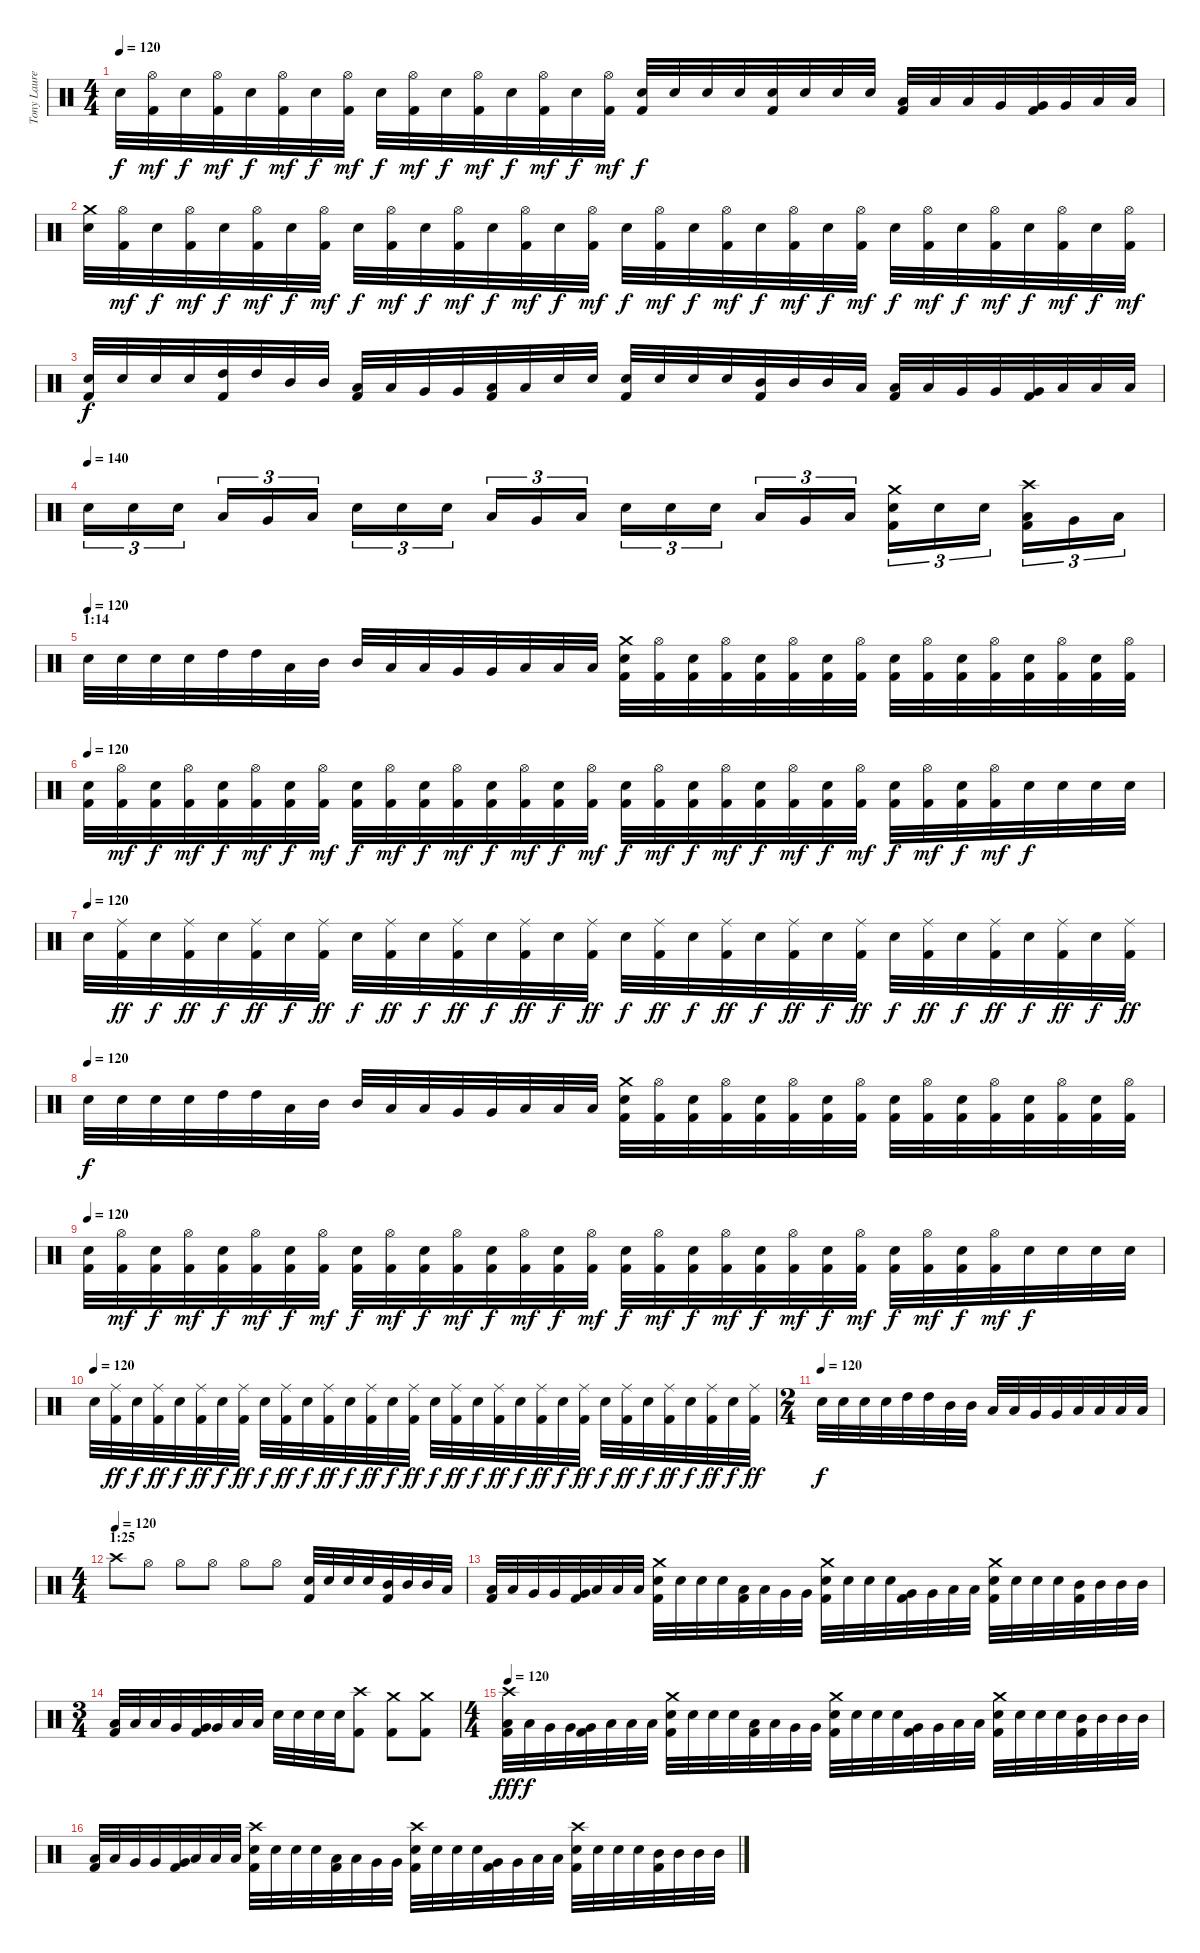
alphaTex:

\track ("Tony Laureano" "Tony Laure") {instrument percussion}
\staff {score}
\articulation defaults
\ts (4 4)
\tempo 120
\clef neutral
\ks c "Electric Snare (hit)".32{dy f}
("Hi-Hat (open)" "Kick (hit) 2").32{dy mf} "Electric Snare (hit)".32{dy f} ("Hi-Hat (open)" "Kick (hit) 2").32{dy mf} "Electric Snare (hit)".32{dy f} ("Hi-Hat (open)" "Kick (hit) 2").32{dy mf} "Electric Snare (hit)".32{dy f} ("Hi-Hat (open)" "Kick (hit) 2").32{dy mf} "Electric Snare (hit)".32{dy f} ("Hi-Hat (open)" "Kick (hit) 2").32{dy mf} "Electric Snare (hit)".32{dy f} ("Hi-Hat (open)" "Kick (hit) 2").32{dy mf} "Electric Snare (hit)".32{dy f} ("Hi-Hat (open)" "Kick (hit) 2").32{dy mf} "Electric Snare (hit)".32{dy f} ("Hi-Hat (open)" "Kick (hit) 2").32{dy mf} ("Electric Snare (hit)" "Kick (hit) 2").32{dy f} "Electric Snare (hit)".32 "Electric Snare (hit)".32 "Electric Snare (hit)".32 ("Electric Snare (hit)" "Kick (hit) 2").32 "Electric Snare (hit)".32 "Electric Snare (hit)".32 "Electric Snare (hit)".32 ("Low Tom (hit)" "Kick (hit) 2").32 "Low Tom (hit)".32 "Low Tom (hit)".32 "Very Low Tom (hit)".32 ("Very Low Tom (hit)" "Kick (hit) 2").32 "Very Low Tom (hit)".32 "Low Floor Tom (hit)".32 "Low Floor Tom (hit)".32 |
("Crash medium (hit)" "Electric Snare (hit)").32 ("Hi-Hat (open)" "Kick (hit) 2").32{dy mf} "Electric Snare (hit)".32{dy f} ("Hi-Hat (open)" "Kick (hit) 2").32{dy mf} "Electric Snare (hit)".32{dy f} ("Hi-Hat (open)" "Kick (hit) 2").32{dy mf} "Electric Snare (hit)".32{dy f} ("Hi-Hat (open)" "Kick (hit) 2").32{dy mf} "Electric Snare (hit)".32{dy f} ("Hi-Hat (open)" "Kick (hit) 2").32{dy mf} "Electric Snare (hit)".32{dy f} ("Hi-Hat (open)" "Kick (hit) 2").32{dy mf} "Electric Snare (hit)".32{dy f} ("Hi-Hat (open)" "Kick (hit) 2").32{dy mf} "Electric Snare (hit)".32{dy f} ("Hi-Hat (open)" "Kick (hit) 2").32{dy mf} "Electric Snare (hit)".32{dy f} ("Hi-Hat (open)" "Kick (hit) 2").32{dy mf} "Electric Snare (hit)".32{dy f} ("Hi-Hat (open)" "Kick (hit) 2").32{dy mf} "Electric Snare (hit)".32{dy f} ("Hi-Hat (open)" "Kick (hit) 2").32{dy mf} "Electric Snare (hit)".32{dy f} ("Hi-Hat (open)" "Kick (hit) 2").32{dy mf} "Electric Snare (hit)".32{dy f} ("Hi-Hat (open)" "Kick (hit) 2").32{dy mf} "Electric Snare (hit)".32{dy f} ("Hi-Hat (open)" "Kick (hit) 2").32{dy mf} "Electric Snare (hit)".32{dy f} ("Hi-Hat (open)" "Kick (hit) 2").32{dy mf} "Electric Snare (hit)".32{dy f} ("Hi-Hat (open)" "Kick (hit) 2").32{dy mf} |
("Electric Snare (hit)" "Kick (hit) 2").32{dy f} "Electric Snare (hit)".32 "Electric Snare (hit)".32 "Electric Snare (hit)".32 ("High Tom (hit)" "Kick (hit) 2").32 "High Tom (hit)".32 "Mid Tom (hit)".32 "Mid Tom (hit)".32 ("Low Tom (hit)" "Kick (hit) 2").32 "Low Tom (hit)".32 "Very Low Tom (hit)".32 "Very Low Tom (hit)".32 ("Low Floor Tom (hit)" "Kick (hit) 2").32 "Low Floor Tom (hit)".32 "Electric Snare (hit)".32 "Electric Snare (hit)".32 ("Electric Snare (hit)" "Kick (hit) 2").32 "Electric Snare (hit)".32 "Electric Snare (hit)".32 "Electric Snare (hit)".32 ("Mid Tom (hit)" "Kick (hit) 2").32 "Mid Tom (hit)".32 "Mid Tom (hit)".32 "Low Tom (hit)".32 ("Low Tom (hit)" "Kick (hit) 2").32 "Low Tom (hit)".32 "Very Low Tom (hit)".32 "Very Low Tom (hit)".32 ("Very Low Tom (hit)" "Kick (hit) 2").32 "Low Floor Tom (hit)".32 "Low Floor Tom (hit)".32 "Low Floor Tom (hit)".32 |
\tempo (140)
"Electric Snare (hit)".16{tu (3 2)} "Electric Snare (hit)".16{tu (3 2)} "Electric Snare (hit)".16{tu (3 2)} "Low Tom (hit)".16{tu (3 2)} "Very Low Tom (hit)".16{tu (3 2)} "Low Floor Tom (hit)".16{tu (3 2)} "Electric Snare (hit)".16{tu (3 2)} "Electric Snare (hit)".16{tu (3 2)} "Electric Snare (hit)".16{tu (3 2)} "Low Tom (hit)".16{tu (3 2)} "Very Low Tom (hit)".16{tu (3 2)} "Low Floor Tom (hit)".16{tu (3 2)} "Electric Snare (hit)".16{tu (3 2)} "Electric Snare (hit)".16{tu (3 2)} "Electric Snare (hit)".16{tu (3 2)} "Low Tom (hit)".16{tu (3 2)} "Very Low Tom (hit)".16{tu (3 2)} "Low Floor Tom (hit)".16{tu (3 2)} ("Crash medium (hit)" "Electric Snare (hit)" "Kick (hit) 2").16{tu (3 2)} "Electric Snare (hit)".16{tu (3 2)} "Electric Snare (hit)".16{tu (3 2)} ("Crash high (hit)" "Low Tom (hit)" "Kick (hit) 2").16{tu (3 2)} "Very Low Tom (hit)".16{tu (3 2)} "Low Floor Tom (hit)".16{tu (3 2)} |
\section ("" "1:14")
\tempo (120)
"Electric Snare (hit)".32 "Electric Snare (hit)".32 "Electric Snare (hit)".32 "Electric Snare (hit)".32 "High Tom (hit)".32 "High Tom (hit)".32 "Low Tom (hit)".32 "Mid Tom (hit)".32 "Mid Tom (hit)".32 "Low Tom (hit)".32 "Low Tom (hit)".32 "Very Low Tom (hit)".32 "Very Low Tom (hit)".32 "Low Floor Tom (hit)".32 "Low Floor Tom (hit)".32 "Low Floor Tom (hit)".32 ("Crash medium (hit)" "Electric Snare (hit)" "Kick (hit) 2").32 ("Hi-Hat (open)" "Kick (hit) 2").32 ("Electric Snare (hit)" "Kick (hit) 2").32 ("Hi-Hat (open)" "Kick (hit) 2").32 ("Electric Snare (hit)" "Kick (hit) 2").32 ("Hi-Hat (open)" "Kick (hit) 2").32 ("Electric Snare (hit)" "Kick (hit) 2").32 ("Hi-Hat (open)" "Kick (hit) 2").32 ("Electric Snare (hit)" "Kick (hit) 2").32 ("Hi-Hat (open)" "Kick (hit) 2").32 ("Electric Snare (hit)" "Kick (hit) 2").32 ("Hi-Hat (open)" "Kick (hit) 2").32 ("Electric Snare (hit)" "Kick (hit) 2").32 ("Hi-Hat (open)" "Kick (hit) 2").32 ("Electric Snare (hit)" "Kick (hit) 2").32 ("Hi-Hat (open)" "Kick (hit) 2").32 |
\tempo 120
("Electric Snare (hit)" "Kick (hit) 2").32 ("Hi-Hat (open)" "Kick (hit) 2").32{dy mf} ("Electric Snare (hit)" "Kick (hit) 2").32{dy f} ("Hi-Hat (open)" "Kick (hit) 2").32{dy mf} ("Electric Snare (hit)" "Kick (hit) 2").32{dy f} ("Hi-Hat (open)" "Kick (hit) 2").32{dy mf} ("Electric Snare (hit)" "Kick (hit) 2").32{dy f} ("Hi-Hat (open)" "Kick (hit) 2").32{dy mf} ("Electric Snare (hit)" "Kick (hit) 2").32{dy f} ("Hi-Hat (open)" "Kick (hit) 2").32{dy mf} ("Electric Snare (hit)" "Kick (hit) 2").32{dy f} ("Hi-Hat (open)" "Kick (hit) 2").32{dy mf} ("Electric Snare (hit)" "Kick (hit) 2").32{dy f} ("Hi-Hat (open)" "Kick (hit) 2").32{dy mf} ("Electric Snare (hit)" "Kick (hit) 2").32{dy f} ("Hi-Hat (open)" "Kick (hit) 2").32{dy mf} ("Electric Snare (hit)" "Kick (hit) 2").32{dy f} ("Hi-Hat (open)" "Kick (hit) 2").32{dy mf} ("Electric Snare (hit)" "Kick (hit) 2").32{dy f} ("Hi-Hat (open)" "Kick (hit) 2").32{dy mf} ("Electric Snare (hit)" "Kick (hit) 2").32{dy f} ("Hi-Hat (open)" "Kick (hit) 2").32{dy mf} ("Electric Snare (hit)" "Kick (hit) 2").32{dy f} ("Hi-Hat (open)" "Kick (hit) 2").32{dy mf} ("Electric Snare (hit)" "Kick (hit) 2").32{dy f} ("Hi-Hat (open)" "Kick (hit) 2").32{dy mf} ("Electric Snare (hit)" "Kick (hit) 2").32{dy f} ("Hi-Hat (open)" "Kick (hit) 2").32{dy mf} "Electric Snare (hit)".32{dy f} "Electric Snare (hit)".32 "Electric Snare (hit)".32 "Electric Snare (hit)".32 |
\tempo (120)
"Electric Snare (hit)".32 ("Ride (middle)" "Kick (hit) 2").32{dy ff} "Electric Snare (hit)".32{dy f} ("Ride (middle)" "Kick (hit) 2").32{dy ff} "Electric Snare (hit)".32{dy f} ("Ride (middle)" "Kick (hit) 2").32{dy ff} "Electric Snare (hit)".32{dy f} ("Ride (middle)" "Kick (hit) 2").32{dy ff} "Electric Snare (hit)".32{dy f} ("Ride (middle)" "Kick (hit) 2").32{dy ff} "Electric Snare (hit)".32{dy f} ("Ride (middle)" "Kick (hit) 2").32{dy ff} "Electric Snare (hit)".32{dy f} ("Ride (middle)" "Kick (hit) 2").32{dy ff} "Electric Snare (hit)".32{dy f} ("Ride (middle)" "Kick (hit) 2").32{dy ff} "Electric Snare (hit)".32{dy f} ("Ride (middle)" "Kick (hit) 2").32{dy ff} "Electric Snare (hit)".32{dy f} ("Ride (middle)" "Kick (hit) 2").32{dy ff} "Electric Snare (hit)".32{dy f} ("Ride (middle)" "Kick (hit) 2").32{dy ff} "Electric Snare (hit)".32{dy f} ("Ride (middle)" "Kick (hit) 2").32{dy ff} "Electric Snare (hit)".32{dy f} ("Ride (middle)" "Kick (hit) 2").32{dy ff} "Electric Snare (hit)".32{dy f} ("Ride (middle)" "Kick (hit) 2").32{dy ff} "Electric Snare (hit)".32{dy f} ("Ride (middle)" "Kick (hit) 2").32{dy ff} "Electric Snare (hit)".32{dy f} ("Ride (middle)" "Kick (hit) 2").32{dy ff} |
\tempo (120)
"Electric Snare (hit)".32{dy f} "Electric Snare (hit)".32 "Electric Snare (hit)".32 "Electric Snare (hit)".32 "High Tom (hit)".32 "High Tom (hit)".32 "Low Tom (hit)".32 "Mid Tom (hit)".32 "Mid Tom (hit)".32 "Low Tom (hit)".32 "Low Tom (hit)".32 "Very Low Tom (hit)".32 "Very Low Tom (hit)".32 "Low Floor Tom (hit)".32 "Low Floor Tom (hit)".32 "Low Floor Tom (hit)".32 ("Crash medium (hit)" "Electric Snare (hit)" "Kick (hit) 2").32 ("Hi-Hat (open)" "Kick (hit) 2").32 ("Electric Snare (hit)" "Kick (hit) 2").32 ("Hi-Hat (open)" "Kick (hit) 2").32 ("Electric Snare (hit)" "Kick (hit) 2").32 ("Hi-Hat (open)" "Kick (hit) 2").32 ("Electric Snare (hit)" "Kick (hit) 2").32 ("Hi-Hat (open)" "Kick (hit) 2").32 ("Electric Snare (hit)" "Kick (hit) 2").32 ("Hi-Hat (open)" "Kick (hit) 2").32 ("Electric Snare (hit)" "Kick (hit) 2").32 ("Hi-Hat (open)" "Kick (hit) 2").32 ("Electric Snare (hit)" "Kick (hit) 2").32 ("Hi-Hat (open)" "Kick (hit) 2").32 ("Electric Snare (hit)" "Kick (hit) 2").32 ("Hi-Hat (open)" "Kick (hit) 2").32 |
\tempo 120
("Electric Snare (hit)" "Kick (hit) 2").32 ("Hi-Hat (open)" "Kick (hit) 2").32{dy mf} ("Electric Snare (hit)" "Kick (hit) 2").32{dy f} ("Hi-Hat (open)" "Kick (hit) 2").32{dy mf} ("Electric Snare (hit)" "Kick (hit) 2").32{dy f} ("Hi-Hat (open)" "Kick (hit) 2").32{dy mf} ("Electric Snare (hit)" "Kick (hit) 2").32{dy f} ("Hi-Hat (open)" "Kick (hit) 2").32{dy mf} ("Electric Snare (hit)" "Kick (hit) 2").32{dy f} ("Hi-Hat (open)" "Kick (hit) 2").32{dy mf} ("Electric Snare (hit)" "Kick (hit) 2").32{dy f} ("Hi-Hat (open)" "Kick (hit) 2").32{dy mf} ("Electric Snare (hit)" "Kick (hit) 2").32{dy f} ("Hi-Hat (open)" "Kick (hit) 2").32{dy mf} ("Electric Snare (hit)" "Kick (hit) 2").32{dy f} ("Hi-Hat (open)" "Kick (hit) 2").32{dy mf} ("Electric Snare (hit)" "Kick (hit) 2").32{dy f} ("Hi-Hat (open)" "Kick (hit) 2").32{dy mf} ("Electric Snare (hit)" "Kick (hit) 2").32{dy f} ("Hi-Hat (open)" "Kick (hit) 2").32{dy mf} ("Electric Snare (hit)" "Kick (hit) 2").32{dy f} ("Hi-Hat (open)" "Kick (hit) 2").32{dy mf} ("Electric Snare (hit)" "Kick (hit) 2").32{dy f} ("Hi-Hat (open)" "Kick (hit) 2").32{dy mf} ("Electric Snare (hit)" "Kick (hit) 2").32{dy f} ("Hi-Hat (open)" "Kick (hit) 2").32{dy mf} ("Electric Snare (hit)" "Kick (hit) 2").32{dy f} ("Hi-Hat (open)" "Kick (hit) 2").32{dy mf} "Electric Snare (hit)".32{dy f} "Electric Snare (hit)".32 "Electric Snare (hit)".32 "Electric Snare (hit)".32 |
\tempo (120)
"Electric Snare (hit)".32 ("Ride (middle)" "Kick (hit) 2").32{dy ff} "Electric Snare (hit)".32{dy f} ("Ride (middle)" "Kick (hit) 2").32{dy ff} "Electric Snare (hit)".32{dy f} ("Ride (middle)" "Kick (hit) 2").32{dy ff} "Electric Snare (hit)".32{dy f} ("Ride (middle)" "Kick (hit) 2").32{dy ff} "Electric Snare (hit)".32{dy f} ("Ride (middle)" "Kick (hit) 2").32{dy ff} "Electric Snare (hit)".32{dy f} ("Ride (middle)" "Kick (hit) 2").32{dy ff} "Electric Snare (hit)".32{dy f} ("Ride (middle)" "Kick (hit) 2").32{dy ff} "Electric Snare (hit)".32{dy f} ("Ride (middle)" "Kick (hit) 2").32{dy ff} "Electric Snare (hit)".32{dy f} ("Ride (middle)" "Kick (hit) 2").32{dy ff} "Electric Snare (hit)".32{dy f} ("Ride (middle)" "Kick (hit) 2").32{dy ff} "Electric Snare (hit)".32{dy f} ("Ride (middle)" "Kick (hit) 2").32{dy ff} "Electric Snare (hit)".32{dy f} ("Ride (middle)" "Kick (hit) 2").32{dy ff} "Electric Snare (hit)".32{dy f} ("Ride (middle)" "Kick (hit) 2").32{dy ff} "Electric Snare (hit)".32{dy f} ("Ride (middle)" "Kick (hit) 2").32{dy ff} "Electric Snare (hit)".32{dy f} ("Ride (middle)" "Kick (hit) 2").32{dy ff} "Electric Snare (hit)".32{dy f} ("Ride (middle)" "Kick (hit) 2").32{dy ff} |
\ts (2 4)
\tempo (120)
"Electric Snare (hit)".32{dy f} "Electric Snare (hit)".32 "Electric Snare (hit)".32 "Electric Snare (hit)".32 "High Tom (hit)".32 "High Tom (hit)".32 "Mid Tom (hit)".32 "Mid Tom (hit)".32 "Low Tom (hit)".32 "Low Tom (hit)".32 "Very Low Tom (hit)".32 "Very Low Tom (hit)".32 "Low Floor Tom (hit)".32 "Low Floor Tom (hit)".32 "Low Floor Tom (hit)".32 "Low Floor Tom (hit)".32 |
\ts (4 4)
\section ("" "1:25")
\tempo (120)
"Crash high (hit)".8 "Hi-Hat (open)".8 "Hi-Hat (open)".8 "Hi-Hat (open)".8 "Hi-Hat (open)".8 "Hi-Hat (open)".8 ("Electric Snare (hit)" "Kick (hit) 2").32 "Electric Snare (hit)".32 "Electric Snare (hit)".32 "Electric Snare (hit)".32 ("Mid Tom (hit)" "Kick (hit) 2").32 "Mid Tom (hit)".32 "Mid Tom (hit)".32 "Low Tom (hit)".32 |
("Low Tom (hit)" "Kick (hit) 2").32 "Low Tom (hit)".32 "Very Low Tom (hit)".32 "Very Low Tom (hit)".32 ("Very Low Tom (hit)" "Kick (hit) 2").32 "Low Floor Tom (hit)".32 "Low Floor Tom (hit)".32 "Low Floor Tom (hit)".32 ("Crash medium (hit)" "Electric Snare (hit)" "Kick (hit) 2").32 "Electric Snare (hit)".32 "Electric Snare (hit)".32 "Electric Snare (hit)".32 ("Low Tom (hit)" "Kick (hit) 2").32 "Low Tom (hit)".32 "Very Low Tom (hit)".32 "Very Low Tom (hit)".32 ("Crash medium (hit)" "Electric Snare (hit)" "Kick (hit) 2").32 "Electric Snare (hit)".32 "Electric Snare (hit)".32 "Electric Snare (hit)".32 ("Very Low Tom (hit)" "Kick (hit) 2").32 "Very Low Tom (hit)".32 "Low Floor Tom (hit)".32 "Low Floor Tom (hit)".32 ("Crash medium (hit)" "Electric Snare (hit)" "Kick (hit) 2").32 "Electric Snare (hit)".32 "Electric Snare (hit)".32 "Electric Snare (hit)".32 ("Mid Tom (hit)" "Kick (hit) 2").32 "Mid Tom (hit)".32 "Mid Tom (hit)".32 "Mid Tom (hit)".32 |
\ts (3 4)
("Low Tom (hit)" "Kick (hit) 2").32 "Low Tom (hit)".32 "Low Tom (hit)".32 "Very Low Tom (hit)".32 ("Very Low Tom (hit)" "Kick (hit) 2").32 "Very Low Tom (hit)".32 "Low Floor Tom (hit)".32 "Low Floor Tom (hit)".32 "Electric Snare (hit)".32 "Electric Snare (hit)".32 "Electric Snare (hit)".32 "Electric Snare (hit)".32 ("Crash high (hit)" "Kick (hit) 2").8 ("Crash medium (hit)" "Kick (hit) 2").8 ("Crash medium (hit)" "Kick (hit) 2").8 |
\ts (4 4)
\tempo 120
("Crash high (hit)" "Low Tom (hit)" "Kick (hit) 2").32{dy fff} "Low Tom (hit)".32{dy f} "Very Low Tom (hit)".32 "Very Low Tom (hit)".32 ("Very Low Tom (hit)" "Kick (hit) 2").32 "Low Floor Tom (hit)".32 "Low Floor Tom (hit)".32 "Low Floor Tom (hit)".32 ("Crash medium (hit)" "Electric Snare (hit)" "Kick (hit) 2").32 "Electric Snare (hit)".32 "Electric Snare (hit)".32 "Electric Snare (hit)".32 ("Low Tom (hit)" "Kick (hit) 2").32 "Low Tom (hit)".32 "Very Low Tom (hit)".32 "Very Low Tom (hit)".32 ("Crash medium (hit)" "Electric Snare (hit)" "Kick (hit) 2").32 "Electric Snare (hit)".32 "Electric Snare (hit)".32 "Electric Snare (hit)".32 ("Very Low Tom (hit)" "Kick (hit) 2").32 "Very Low Tom (hit)".32 "Low Floor Tom (hit)".32 "Low Floor Tom (hit)".32 ("Crash medium (hit)" "Electric Snare (hit)" "Kick (hit) 2").32 "Electric Snare (hit)".32 "Electric Snare (hit)".32 "Electric Snare (hit)".32 ("Mid Tom (hit)" "Kick (hit) 2").32 "Mid Tom (hit)".32 "Mid Tom (hit)".32 "Mid Tom (hit)".32 |
("Low Tom (hit)" "Kick (hit) 2").32 "Low Tom (hit)".32 "Very Low Tom (hit)".32 "Very Low Tom (hit)".32 ("Very Low Tom (hit)" "Kick (hit) 2").32 "Low Floor Tom (hit)".32 "Low Floor Tom (hit)".32 "Low Floor Tom (hit)".32 ("Crash high (hit)" "Electric Snare (hit)" "Kick (hit) 2").32 "Electric Snare (hit)".32 "Electric Snare (hit)".32 "Electric Snare (hit)".32 ("Low Tom (hit)" "Kick (hit) 2").32 "Low Tom (hit)".32 "Very Low Tom (hit)".32 "Very Low Tom (hit)".32 ("Crash high (hit)" "Electric Snare (hit)" "Kick (hit) 2").32 "Electric Snare (hit)".32 "Electric Snare (hit)".32 "Electric Snare (hit)".32 ("Very Low Tom (hit)" "Kick (hit) 2").32 "Very Low Tom (hit)".32 "Low Floor Tom (hit)".32 "Low Floor Tom (hit)".32 ("Crash high (hit)" "Electric Snare (hit)" "Kick (hit) 2").32 "Electric Snare (hit)".32 "Electric Snare (hit)".32 "Electric Snare (hit)".32 ("Mid Tom (hit)" "Kick (hit) 2").32 "Mid Tom (hit)".32 "Mid Tom (hit)".32 "Mid Tom (hit)".32
